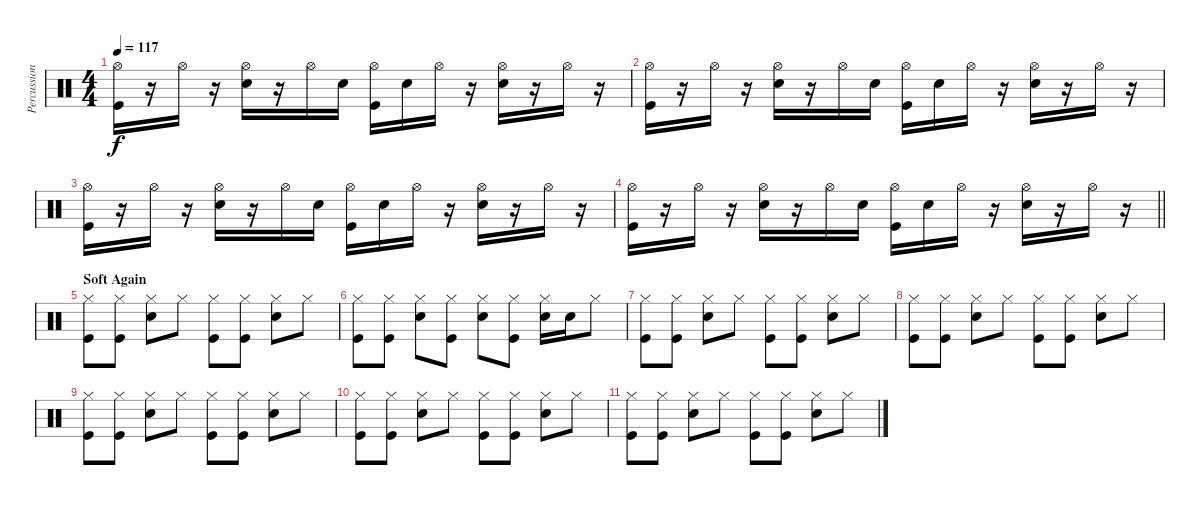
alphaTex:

\track ("Percussion" "Percussion") {instrument percussion}
\staff
\articulation defaults
\ts (4 4)
\tempo 117
\clef neutral
\ks c
("Hi-Hat (open)" "Kick (hit)").16{dy f} r.16 "Hi-Hat (open)".16 r.16 ("Hi-Hat (open)" "Snare (hit) 2").16 r.16 "Hi-Hat (open)".16 "Snare (hit) 2".16 ("Hi-Hat (open)" "Kick (hit)").16 "Snare (hit) 2".16 "Hi-Hat (open)".16 r.16 ("Hi-Hat (open)" "Snare (hit) 2").16 r.16 "Hi-Hat (open)".16 r.16 |
("Hi-Hat (open)" "Kick (hit)").16 r.16 "Hi-Hat (open)".16 r.16 ("Hi-Hat (open)" "Snare (hit) 2").16 r.16 "Hi-Hat (open)".16 "Snare (hit) 2".16 ("Hi-Hat (open)" "Kick (hit)").16 "Snare (hit) 2".16 "Hi-Hat (open)".16 r.16 ("Hi-Hat (open)" "Snare (hit) 2").16 r.16 "Hi-Hat (open)".16 r.16 |
("Hi-Hat (open)" "Kick (hit)").16 r.16 "Hi-Hat (open)".16 r.16 ("Hi-Hat (open)" "Snare (hit) 2").16 r.16 "Hi-Hat (open)".16 "Snare (hit) 2".16 ("Hi-Hat (open)" "Kick (hit)").16 "Snare (hit) 2".16 "Hi-Hat (open)".16 r.16 ("Hi-Hat (open)" "Snare (hit) 2").16 r.16 "Hi-Hat (open)".16 r.16 |
\barLineRight lightlight
("Hi-Hat (open)" "Kick (hit)").16 r.16 "Hi-Hat (open)".16 r.16 ("Hi-Hat (open)" "Snare (hit) 2").16 r.16 "Hi-Hat (open)".16 "Snare (hit) 2".16 ("Hi-Hat (open)" "Kick (hit)").16 "Snare (hit) 2".16 "Hi-Hat (open)".16 r.16 ("Hi-Hat (open)" "Snare (hit) 2").16 r.16 "Hi-Hat (open)".16 r.16 |
\section ("" "Soft Again")
("Hi-Hat (closed)" "Kick (hit)").8 ("Hi-Hat (closed)" "Kick (hit)").8 ("Hi-Hat (closed)" "Snare (hit) 2").8 "Hi-Hat (closed)".8 ("Hi-Hat (closed)" "Kick (hit)").8 ("Hi-Hat (closed)" "Kick (hit)").8 ("Hi-Hat (closed)" "Snare (hit) 2").8 "Hi-Hat (closed)".8 |
("Hi-Hat (closed)" "Kick (hit)").8 ("Hi-Hat (closed)" "Kick (hit)").8 ("Hi-Hat (closed)" "Snare (hit) 2").8 ("Hi-Hat (closed)" "Kick (hit)").8 ("Hi-Hat (closed)" "Snare (hit) 2").8 ("Hi-Hat (closed)" "Kick (hit)").8 ("Hi-Hat (closed)" "Snare (hit) 2").16 "Snare (hit) 2".16 "Hi-Hat (closed)".8 |
("Hi-Hat (closed)" "Kick (hit)").8 ("Hi-Hat (closed)" "Kick (hit)").8 ("Hi-Hat (closed)" "Snare (hit) 2").8 "Hi-Hat (closed)".8 ("Hi-Hat (closed)" "Kick (hit)").8 ("Hi-Hat (closed)" "Kick (hit)").8 ("Hi-Hat (closed)" "Snare (hit) 2").8 "Hi-Hat (closed)".8 |
("Hi-Hat (closed)" "Kick (hit)").8 ("Hi-Hat (closed)" "Kick (hit)").8 ("Hi-Hat (closed)" "Snare (hit) 2").8 "Hi-Hat (closed)".8 ("Hi-Hat (closed)" "Kick (hit)").8 ("Hi-Hat (closed)" "Kick (hit)").8 ("Hi-Hat (closed)" "Snare (hit) 2").8 "Hi-Hat (closed)".8 |
("Hi-Hat (closed)" "Kick (hit)").8 ("Hi-Hat (closed)" "Kick (hit)").8 ("Hi-Hat (closed)" "Snare (hit) 2").8 "Hi-Hat (closed)".8 ("Hi-Hat (closed)" "Kick (hit)").8 ("Hi-Hat (closed)" "Kick (hit)").8 ("Hi-Hat (closed)" "Snare (hit) 2").8 "Hi-Hat (closed)".8 |
("Hi-Hat (closed)" "Kick (hit)").8 ("Hi-Hat (closed)" "Kick (hit)").8 ("Hi-Hat (closed)" "Snare (hit) 2").8 "Hi-Hat (closed)".8 ("Hi-Hat (closed)" "Kick (hit)").8 ("Hi-Hat (closed)" "Kick (hit)").8 ("Hi-Hat (closed)" "Snare (hit) 2").8 "Hi-Hat (closed)".8 |
("Hi-Hat (closed)" "Kick (hit)").8 ("Hi-Hat (closed)" "Kick (hit)").8 ("Hi-Hat (closed)" "Snare (hit) 2").8 "Hi-Hat (closed)".8 ("Hi-Hat (closed)" "Kick (hit)").8 ("Hi-Hat (closed)" "Kick (hit)").8 ("Hi-Hat (closed)" "Snare (hit) 2").8 "Hi-Hat (closed)".8
